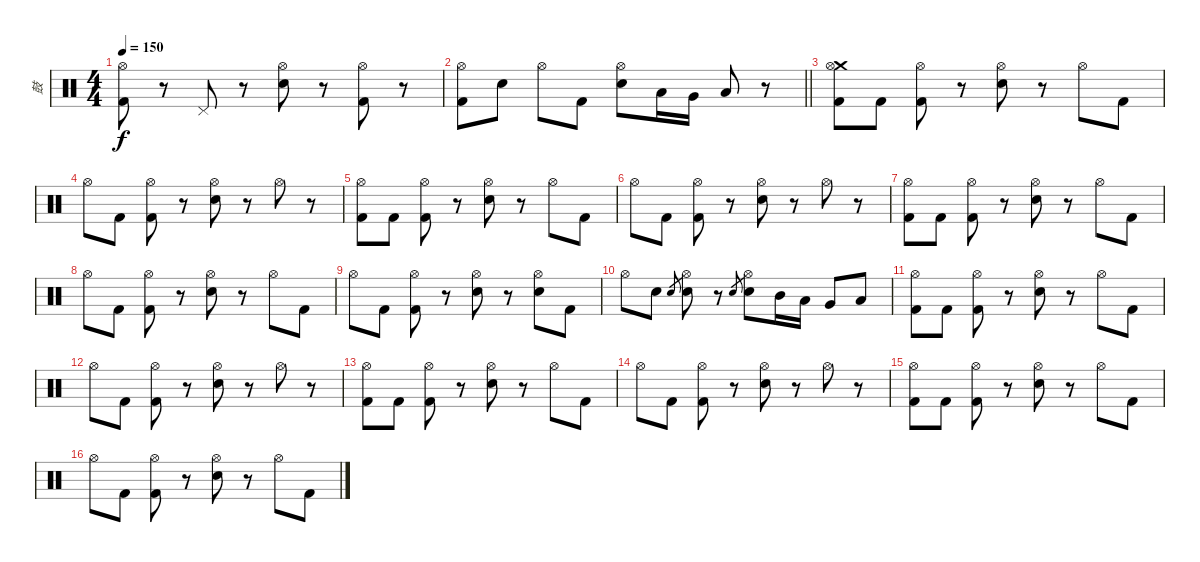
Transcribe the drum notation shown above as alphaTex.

\track ("鼓" "鼓") {instrument percussion}
\staff {score}
\articulation defaults
\ts (4 4)
\tempo 150
\clef neutral
\ks c
("Hi-Hat (open)" "Kick (hit) 2").8{dy f} r.8 "Pedal Hi-Hat (hit)".8 r.8 ("Hi-Hat (open)" "Electric Snare (hit)").8 r.8 ("Hi-Hat (open)" "Kick (hit) 2").8 r.8 |
\barLineRight lightlight
("Hi-Hat (open)" "Kick (hit) 2").8 "Electric Snare (hit)".8 "Hi-Hat (open)".8 "Kick (hit) 2".8 ("Hi-Hat (open)" "Electric Snare (hit)").8 "Low Tom (hit)".16 "Very Low Tom (hit)".16 "Low Floor Tom (hit)".8 r.8 |
("Crash medium (hit)" "Hi-Hat (open)" "Kick (hit) 2").8 "Kick (hit) 2".8 ("Hi-Hat (open)" "Kick (hit) 2").8 r.8 ("Hi-Hat (open)" "Electric Snare (hit)").8 r.8 "Hi-Hat (open)".8 "Kick (hit) 2".8 |
"Hi-Hat (open)".8 "Kick (hit) 2".8 ("Hi-Hat (open)" "Kick (hit) 2").8 r.8 ("Hi-Hat (open)" "Electric Snare (hit)").8 r.8 "Hi-Hat (open)".8 r.8 |
("Hi-Hat (open)" "Kick (hit) 2").8 "Kick (hit) 2".8 ("Hi-Hat (open)" "Kick (hit) 2").8 r.8 ("Hi-Hat (open)" "Electric Snare (hit)").8 r.8 "Hi-Hat (open)".8 "Kick (hit) 2".8 |
"Hi-Hat (open)".8 "Kick (hit) 2".8 ("Hi-Hat (open)" "Kick (hit) 2").8 r.8 ("Hi-Hat (open)" "Electric Snare (hit)").8 r.8 "Hi-Hat (open)".8 r.8 |
("Hi-Hat (open)" "Kick (hit) 2").8 "Kick (hit) 2".8 ("Hi-Hat (open)" "Kick (hit) 2").8 r.8 ("Hi-Hat (open)" "Electric Snare (hit)").8 r.8 "Hi-Hat (open)".8 "Kick (hit) 2".8 |
"Hi-Hat (open)".8 "Kick (hit) 2".8 ("Hi-Hat (open)" "Kick (hit) 2").8 r.8 ("Hi-Hat (open)" "Electric Snare (hit)").8 r.8 "Hi-Hat (open)".8 "Kick (hit) 2".8 |
"Hi-Hat (open)".8 "Kick (hit) 2".8 ("Hi-Hat (open)" "Kick (hit) 2").8 r.8 ("Hi-Hat (open)" "Electric Snare (hit)").8 r.8 ("Hi-Hat (open)" "Electric Snare (hit)").8 "Kick (hit) 2".8 |
"Hi-Hat (open)".8 "Electric Snare (hit)".8 "Electric Snare (hit)".8{gr} ("Hi-Hat (open)" "Electric Snare (hit)").8 r.8 "Electric Snare (hit)".8{gr} ("Hi-Hat (open)" "Electric Snare (hit)").8 "Mid Tom (hit)".16 "Low Tom (hit)".16 "Very Low Tom (hit)".8 "Low Floor Tom (hit)".8 |
("Hi-Hat (open)" "Kick (hit) 2").8 "Kick (hit) 2".8 ("Hi-Hat (open)" "Kick (hit) 2").8 r.8 ("Hi-Hat (open)" "Electric Snare (hit)").8 r.8 "Hi-Hat (open)".8 "Kick (hit) 2".8 |
"Hi-Hat (open)".8 "Kick (hit) 2".8 ("Hi-Hat (open)" "Kick (hit) 2").8 r.8 ("Hi-Hat (open)" "Electric Snare (hit)").8 r.8 "Hi-Hat (open)".8 r.8 |
("Hi-Hat (open)" "Kick (hit) 2").8 "Kick (hit) 2".8 ("Hi-Hat (open)" "Kick (hit) 2").8 r.8 ("Hi-Hat (open)" "Electric Snare (hit)").8 r.8 "Hi-Hat (open)".8 "Kick (hit) 2".8 |
"Hi-Hat (open)".8 "Kick (hit) 2".8 ("Hi-Hat (open)" "Kick (hit) 2").8 r.8 ("Hi-Hat (open)" "Electric Snare (hit)").8 r.8 "Hi-Hat (open)".8 r.8 |
("Hi-Hat (open)" "Kick (hit) 2").8 "Kick (hit) 2".8 ("Hi-Hat (open)" "Kick (hit) 2").8 r.8 ("Hi-Hat (open)" "Electric Snare (hit)").8 r.8 "Hi-Hat (open)".8 "Kick (hit) 2".8 |
"Hi-Hat (open)".8 "Kick (hit) 2".8 ("Hi-Hat (open)" "Kick (hit) 2").8 r.8 ("Hi-Hat (open)" "Electric Snare (hit)").8 r.8 "Hi-Hat (open)".8 "Kick (hit) 2".8
